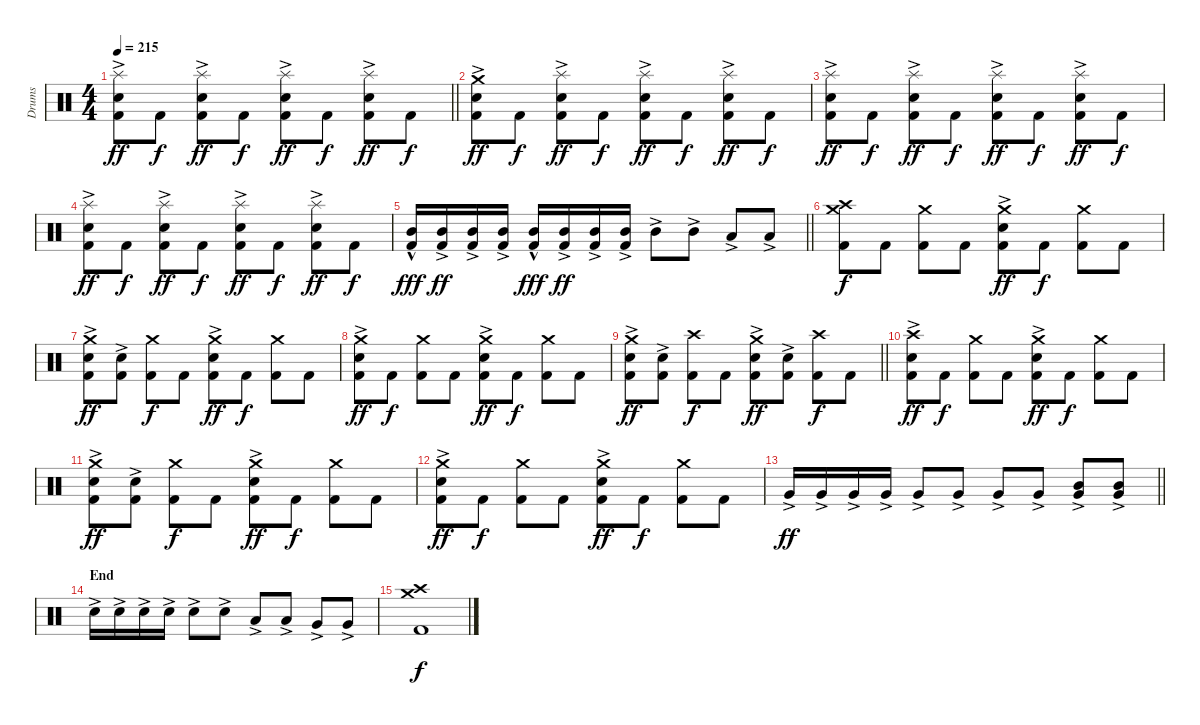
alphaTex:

\track ("Drums" "Drums") {instrument percussion}
\staff {score}
\articulation defaults
\ts (4 4)
\tempo 215
\clef neutral
\barLineRight lightlight
\ks c
("Kick (hit) 2" "Snare (hit) 2"{ac} "Splash (hit)").8{dy ff} "Kick (hit) 2".8{dy f} ("Kick (hit) 2" "Snare (hit) 2"{ac} "Splash (hit)").8{dy ff} "Kick (hit) 2".8{dy f} ("Kick (hit) 2" "Snare (hit) 2"{ac} "Splash (hit)").8{dy ff} "Kick (hit) 2".8{dy f} ("Kick (hit) 2" "Snare (hit) 2"{ac} "Splash (hit)").8{dy ff} "Kick (hit) 2".8{dy f} |
\section ("" "")
("Kick (hit) 2" "Snare (hit) 2"{ac} "Crash medium (hit)").8{dy ff} "Kick (hit) 2".8{dy f} ("Kick (hit) 2" "Snare (hit) 2"{ac} "Splash (hit)").8{dy ff} "Kick (hit) 2".8{dy f} ("Kick (hit) 2" "Snare (hit) 2"{ac} "Splash (hit)").8{dy ff} "Kick (hit) 2".8{dy f} ("Kick (hit) 2" "Snare (hit) 2"{ac} "Splash (hit)").8{dy ff} "Kick (hit) 2".8{dy f} |
("Kick (hit) 2" "Snare (hit) 2"{ac} "Splash (hit)").8{dy ff} "Kick (hit) 2".8{dy f} ("Kick (hit) 2" "Snare (hit) 2"{ac} "Splash (hit)").8{dy ff} "Kick (hit) 2".8{dy f} ("Kick (hit) 2" "Snare (hit) 2"{ac} "Splash (hit)").8{dy ff} "Kick (hit) 2".8{dy f} ("Kick (hit) 2" "Snare (hit) 2"{ac} "Splash (hit)").8{dy ff} "Kick (hit) 2".8{dy f} |
("Kick (hit) 2" "Snare (hit) 2"{ac} "Splash (hit)").8{dy ff} "Kick (hit) 2".8{dy f} ("Kick (hit) 2" "Snare (hit) 2"{ac} "Splash (hit)").8{dy ff} "Kick (hit) 2".8{dy f} ("Kick (hit) 2" "Snare (hit) 2"{ac} "Splash (hit)").8{dy ff} "Kick (hit) 2".8{dy f} ("Kick (hit) 2" "Snare (hit) 2"{ac} "Splash (hit)").8{dy ff} "Kick (hit) 2".8{dy f} |
\barLineRight lightlight
("Kick (hit) 2" "Mid Tom (hit)"{hac}).16{dy fff} ("Kick (hit) 2" "Mid Tom (hit)"{ac}).16{dy ff} ("Kick (hit) 2" "Mid Tom (hit)"{ac}).16 ("Kick (hit) 2" "Mid Tom (hit)"{ac}).16 ("Kick (hit) 2" "Mid Tom (hit)"{hac}).16{dy fff} ("Kick (hit) 2" "Mid Tom (hit)"{ac}).16{dy ff} ("Kick (hit) 2" "Mid Tom (hit)"{ac}).16 ("Kick (hit) 2" "Mid Tom (hit)"{ac}).16 "Mid Tom (hit)"{ac}.8 "Mid Tom (hit)"{ac}.8 "Low Tom (hit)"{ac}.8 "Low Tom (hit)"{ac}.8 |
\section ("" "")
("Kick (hit) 2" "Crash medium (hit)" "Crash high (hit)").8{dy f} "Kick (hit) 2".8 ("Kick (hit) 2" "Crash medium (hit)").8 "Kick (hit) 2".8 ("Kick (hit) 2" "Snare (hit) 2"{ac} "Crash medium (hit)").8{dy ff} "Kick (hit) 2".8{dy f} ("Kick (hit) 2" "Crash medium (hit)").8 "Kick (hit) 2".8 |
("Kick (hit) 2" "Snare (hit) 2"{ac} "Crash medium (hit)").8{dy ff} ("Kick (hit) 2" "Snare (hit) 2"{ac}).8 ("Kick (hit) 2" "Crash medium (hit)").8{dy f} "Kick (hit) 2".8 ("Kick (hit) 2" "Snare (hit) 2"{ac} "Crash medium (hit)").8{dy ff} "Kick (hit) 2".8{dy f} ("Kick (hit) 2" "Crash medium (hit)").8 "Kick (hit) 2".8 |
("Kick (hit) 2" "Snare (hit) 2"{ac} "Crash medium (hit)").8{dy ff} "Kick (hit) 2".8{dy f} ("Kick (hit) 2" "Crash medium (hit)").8 "Kick (hit) 2".8 ("Kick (hit) 2" "Snare (hit) 2"{ac} "Crash medium (hit)").8{dy ff} "Kick (hit) 2".8{dy f} ("Kick (hit) 2" "Crash medium (hit)").8 "Kick (hit) 2".8 |
\barLineRight lightlight
("Kick (hit) 2" "Snare (hit) 2"{ac} "Crash medium (hit)").8{dy ff} ("Kick (hit) 2" "Snare (hit) 2"{ac}).8 ("Kick (hit) 2" "Crash high (hit)").8{dy f} "Kick (hit) 2".8 ("Kick (hit) 2" "Snare (hit) 2"{ac} "Crash medium (hit)").8{dy ff} ("Kick (hit) 2" "Snare (hit) 2"{ac}).8 ("Kick (hit) 2" "Crash high (hit)").8{dy f} "Kick (hit) 2".8 |
\section ("" "")
("Kick (hit) 2" "Snare (hit) 2"{ac} "Crash high (hit)").8{dy ff} "Kick (hit) 2".8{dy f} ("Kick (hit) 2" "Crash medium (hit)").8 "Kick (hit) 2".8 ("Kick (hit) 2" "Snare (hit) 2"{ac} "Crash medium (hit)").8{dy ff} "Kick (hit) 2".8{dy f} ("Kick (hit) 2" "Crash medium (hit)").8 "Kick (hit) 2".8 |
("Kick (hit) 2" "Snare (hit) 2"{ac} "Crash medium (hit)").8{dy ff} ("Kick (hit) 2" "Snare (hit) 2"{ac}).8 ("Kick (hit) 2" "Crash medium (hit)").8{dy f} "Kick (hit) 2".8 ("Kick (hit) 2" "Snare (hit) 2"{ac} "Crash medium (hit)").8{dy ff} "Kick (hit) 2".8{dy f} ("Kick (hit) 2" "Crash medium (hit)").8 "Kick (hit) 2".8 |
("Kick (hit) 2" "Snare (hit) 2"{ac} "Crash medium (hit)").8{dy ff} "Kick (hit) 2".8{dy f} ("Kick (hit) 2" "Crash medium (hit)").8 "Kick (hit) 2".8 ("Kick (hit) 2" "Snare (hit) 2"{ac} "Crash medium (hit)").8{dy ff} "Kick (hit) 2".8{dy f} ("Kick (hit) 2" "Crash medium (hit)").8 "Kick (hit) 2".8 |
\barLineRight lightlight "Very Low Tom (hit)"{ac}.16{dy ff} "Very Low Tom (hit)"{ac}.16 "Very Low Tom (hit)"{ac}.16 "Very Low Tom (hit)"{ac}.16 "Very Low Tom (hit)"{ac}.8 "Very Low Tom (hit)"{ac}.8 "Very Low Tom (hit)"{ac}.8 "Very Low Tom (hit)"{ac}.8
("Very Low Tom (hit)"{ac} "Mid Tom (hit)"{ac}).8 ("Very Low Tom (hit)"{ac} "Mid Tom (hit)"{ac}).8 |
\section ("" "End")
"Snare (hit) 2"{ac}.16 "Snare (hit) 2"{ac}.16 "Snare (hit) 2"{ac}.16 "Snare (hit) 2"{ac}.16 "Snare (hit) 2"{ac}.8 "Snare (hit) 2"{ac}.8 "Low Tom (hit)"{ac}.8 "Low Tom (hit)"{ac}.8 "Very Low Tom (hit)"{ac}.8 "Very Low Tom (hit)"{ac}.8 |
("Kick (hit) 2" "Crash medium (hit)" "Crash high (hit)").1{dy f}
